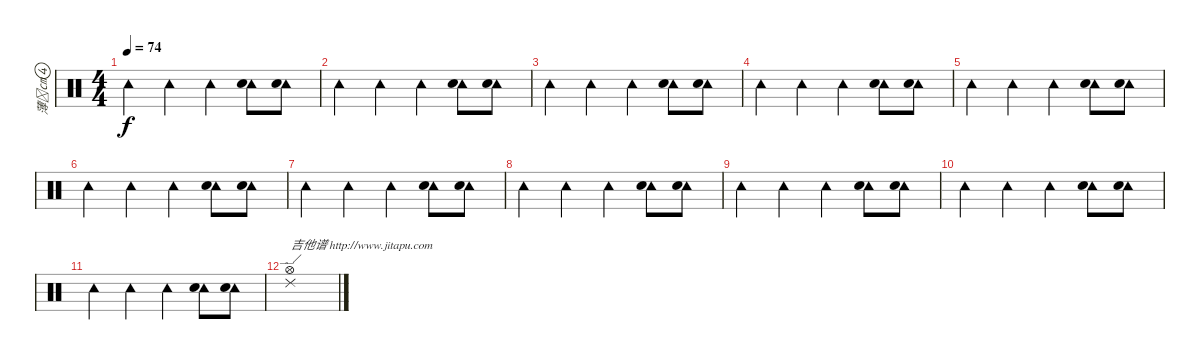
\track ("薄㎝" "薄㎝") {instrument percussion}
\staff {score}
\articulation defaults
\ts (4 4)
\tempo 74
\clef neutral
\ks c "Tambourine (hit)".4{dy f} "Tambourine (hit)".4 "Tambourine (hit)".4
("Tambourine (hit)" "Snare (hit) 2").8 ("Tambourine (hit)" "Snare (hit) 2").8 |
"Tambourine (hit)".4 "Tambourine (hit)".4 "Tambourine (hit)".4 ("Tambourine (hit)" "Snare (hit) 2").8 ("Tambourine (hit)" "Snare (hit) 2").8 |
"Tambourine (hit)".4 "Tambourine (hit)".4 "Tambourine (hit)".4 ("Tambourine (hit)" "Snare (hit) 2").8 ("Tambourine (hit)" "Snare (hit) 2").8 |
"Tambourine (hit)".4 "Tambourine (hit)".4 "Tambourine (hit)".4 ("Tambourine (hit)" "Snare (hit) 2").8 ("Tambourine (hit)" "Snare (hit) 2").8 |
"Tambourine (hit)".4 "Tambourine (hit)".4 "Tambourine (hit)".4 ("Tambourine (hit)" "Snare (hit) 2").8 ("Tambourine (hit)" "Snare (hit) 2").8 |
"Tambourine (hit)".4 "Tambourine (hit)".4 "Tambourine (hit)".4 ("Tambourine (hit)" "Snare (hit) 2").8 ("Tambourine (hit)" "Snare (hit) 2").8 |
"Tambourine (hit)".4 "Tambourine (hit)".4 "Tambourine (hit)".4 ("Tambourine (hit)" "Snare (hit) 2").8 ("Tambourine (hit)" "Snare (hit) 2").8 |
"Tambourine (hit)".4 "Tambourine (hit)".4 "Tambourine (hit)".4 ("Tambourine (hit)" "Snare (hit) 2").8 ("Tambourine (hit)" "Snare (hit) 2").8 |
"Tambourine (hit)".4 "Tambourine (hit)".4 "Tambourine (hit)".4 ("Tambourine (hit)" "Snare (hit) 2").8 ("Tambourine (hit)" "Snare (hit) 2").8 |
"Tambourine (hit)".4 "Tambourine (hit)".4 "Tambourine (hit)".4 ("Tambourine (hit)" "Snare (hit) 2").8 ("Tambourine (hit)" "Snare (hit) 2").8 |
"Tambourine (hit)".4 "Tambourine (hit)".4 "Tambourine (hit)".4 ("Tambourine (hit)" "Snare (hit) 2").8 ("Tambourine (hit)" "Snare (hit) 2").8 |
("Hi-Hat (open)" "Ride (edge) 2").1{txt "吉他谱 http://www.jitapu.com"}
